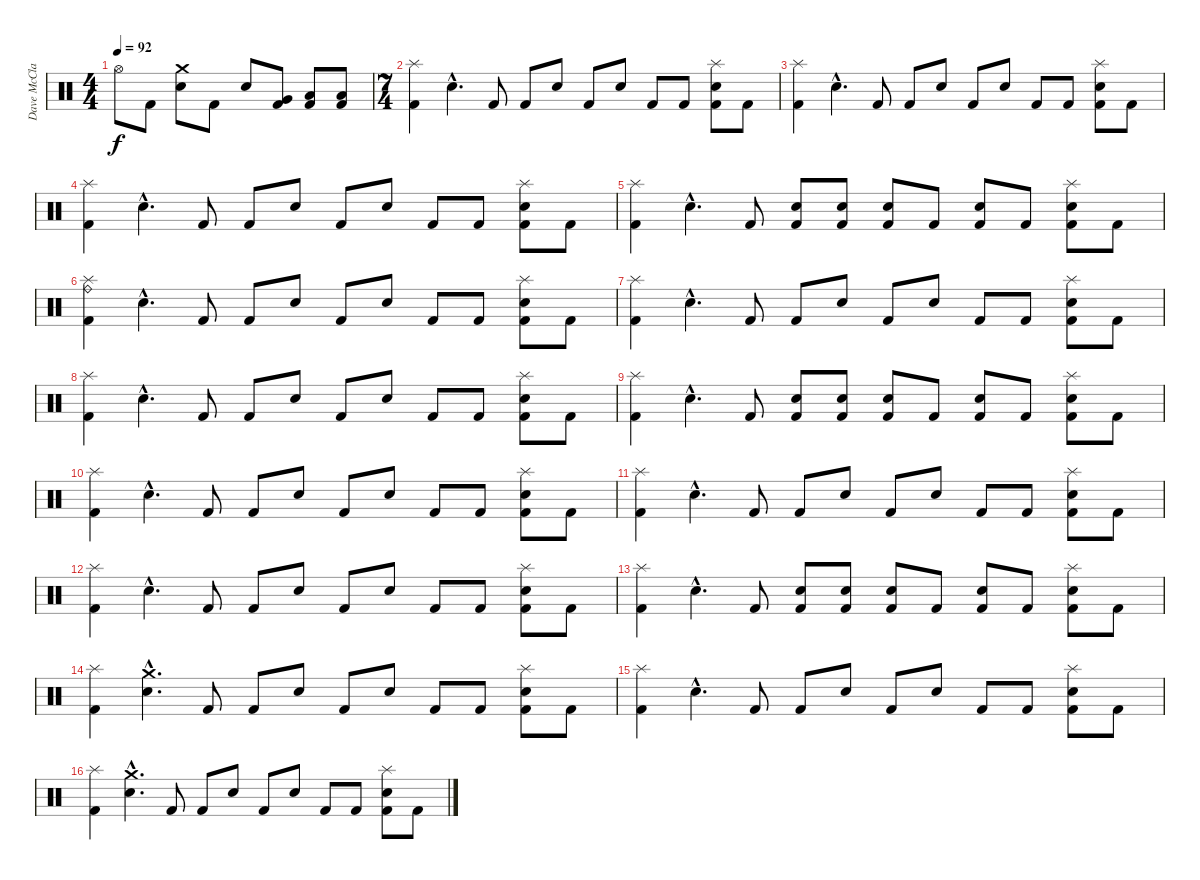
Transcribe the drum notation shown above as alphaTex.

\track ("Dave McClain" "Dave McCla") {instrument percussion}
\staff {score}
\articulation defaults
\ts (4 4)
\tempo 92
\clef neutral
\ks c "Hi-Hat (open)".8{dy f} "Kick (hit) 2".8
("Crash medium (hit)" "Electric Snare (hit)").8 "Kick (hit) 2".8 "Electric Snare (hit)".8 ("Very Low Tom (hit)" "Kick (hit) 2").8 ("Low Floor Tom (hit)" "Kick (hit) 2").8 ("Low Floor Tom (hit)" "Kick (hit) 2").8 |
\ts (7 4)
("Splash (hit)" "Kick (hit) 2").4{volume 11} "Snare (hit) 2"{hac}.4{d} "Kick (hit) 2".8 "Kick (hit) 2".8 "Electric Snare (hit)".8 "Kick (hit) 2".8 "Electric Snare (hit)".8 "Kick (hit) 2".8 "Kick (hit) 2".8 ("Splash (hit)" "Electric Snare (hit)" "Kick (hit) 2").8 "Kick (hit) 2".8 |
("Splash (hit)" "Kick (hit) 2").4 "Snare (hit) 2"{hac}.4{d} "Kick (hit) 2".8 "Kick (hit) 2".8 "Electric Snare (hit)".8 "Kick (hit) 2".8 "Electric Snare (hit)".8 "Kick (hit) 2".8 "Kick (hit) 2".8 ("Splash (hit)" "Electric Snare (hit)" "Kick (hit) 2").8 "Kick (hit) 2".8 |
("Splash (hit)" "Kick (hit) 2").4 "Snare (hit) 2"{hac}.4{d} "Kick (hit) 2".8 "Kick (hit) 2".8 "Electric Snare (hit)".8 "Kick (hit) 2".8 "Electric Snare (hit)".8 "Kick (hit) 2".8 "Kick (hit) 2".8 ("Splash (hit)" "Electric Snare (hit)" "Kick (hit) 2").8 "Kick (hit) 2".8 |
("Splash (hit)" "Kick (hit) 2").4 "Snare (hit) 2"{hac}.4{d} "Kick (hit) 2".8 ("Electric Snare (hit)" "Kick (hit) 2").8 ("Electric Snare (hit)" "Kick (hit) 2").8 ("Electric Snare (hit)" "Kick (hit) 2").8 "Kick (hit) 2".8 ("Electric Snare (hit)" "Kick (hit) 2").8 "Kick (hit) 2".8 ("Splash (hit)" "Electric Snare (hit)" "Kick (hit) 2").8 "Kick (hit) 2".8 |
("Ride (bell)" "Splash (hit)" "Kick (hit) 2").4 "Snare (hit) 2"{hac}.4{d} "Kick (hit) 2".8 "Kick (hit) 2".8 "Electric Snare (hit)".8 "Kick (hit) 2".8 "Electric Snare (hit)".8 "Kick (hit) 2".8 "Kick (hit) 2".8 ("Splash (hit)" "Electric Snare (hit)" "Kick (hit) 2").8 "Kick (hit) 2".8 |
("Splash (hit)" "Kick (hit) 2").4 "Snare (hit) 2"{hac}.4{d} "Kick (hit) 2".8 "Kick (hit) 2".8 "Electric Snare (hit)".8 "Kick (hit) 2".8 "Electric Snare (hit)".8 "Kick (hit) 2".8 "Kick (hit) 2".8 ("Splash (hit)" "Electric Snare (hit)" "Kick (hit) 2").8 "Kick (hit) 2".8 |
("Splash (hit)" "Kick (hit) 2").4 "Snare (hit) 2"{hac}.4{d} "Kick (hit) 2".8 "Kick (hit) 2".8 "Electric Snare (hit)".8 "Kick (hit) 2".8 "Electric Snare (hit)".8 "Kick (hit) 2".8 "Kick (hit) 2".8 ("Splash (hit)" "Electric Snare (hit)" "Kick (hit) 2").8 "Kick (hit) 2".8 |
("Splash (hit)" "Kick (hit) 2").4 "Snare (hit) 2"{hac}.4{d} "Kick (hit) 2".8 ("Electric Snare (hit)" "Kick (hit) 2").8 ("Electric Snare (hit)" "Kick (hit) 2").8 ("Electric Snare (hit)" "Kick (hit) 2").8 "Kick (hit) 2".8 ("Electric Snare (hit)" "Kick (hit) 2").8 "Kick (hit) 2".8 ("Splash (hit)" "Electric Snare (hit)" "Kick (hit) 2").8 "Kick (hit) 2".8 |
("Splash (hit)" "Kick (hit) 2").4 "Snare (hit) 2"{hac}.4{d} "Kick (hit) 2".8 "Kick (hit) 2".8 "Electric Snare (hit)".8 "Kick (hit) 2".8 "Electric Snare (hit)".8 "Kick (hit) 2".8 "Kick (hit) 2".8 ("Splash (hit)" "Electric Snare (hit)" "Kick (hit) 2").8 "Kick (hit) 2".8 |
("Splash (hit)" "Kick (hit) 2").4 "Snare (hit) 2"{hac}.4{d} "Kick (hit) 2".8 "Kick (hit) 2".8 "Electric Snare (hit)".8 "Kick (hit) 2".8 "Electric Snare (hit)".8 "Kick (hit) 2".8 "Kick (hit) 2".8 ("Splash (hit)" "Electric Snare (hit)" "Kick (hit) 2").8 "Kick (hit) 2".8 |
("Splash (hit)" "Kick (hit) 2").4 "Snare (hit) 2"{hac}.4{d} "Kick (hit) 2".8 "Kick (hit) 2".8 "Electric Snare (hit)".8 "Kick (hit) 2".8 "Electric Snare (hit)".8 "Kick (hit) 2".8 "Kick (hit) 2".8 ("Splash (hit)" "Electric Snare (hit)" "Kick (hit) 2").8 "Kick (hit) 2".8 |
("Splash (hit)" "Kick (hit) 2").4 "Snare (hit) 2"{hac}.4{d} "Kick (hit) 2".8 ("Electric Snare (hit)" "Kick (hit) 2").8 ("Electric Snare (hit)" "Kick (hit) 2").8 ("Electric Snare (hit)" "Kick (hit) 2").8 "Kick (hit) 2".8 ("Electric Snare (hit)" "Kick (hit) 2").8 "Kick (hit) 2".8 ("Splash (hit)" "Electric Snare (hit)" "Kick (hit) 2").8 "Kick (hit) 2".8 |
("Splash (hit)" "Kick (hit) 2").4 ("Crash medium (hit)"{hac} "Snare (hit) 2"{hac}).4{d} "Kick (hit) 2".8 "Kick (hit) 2".8 "Electric Snare (hit)".8 "Kick (hit) 2".8 "Electric Snare (hit)".8 "Kick (hit) 2".8 "Kick (hit) 2".8 ("Splash (hit)" "Electric Snare (hit)" "Kick (hit) 2").8 "Kick (hit) 2".8 |
("Splash (hit)" "Kick (hit) 2").4 "Snare (hit) 2"{hac}.4{d} "Kick (hit) 2".8 "Kick (hit) 2".8 "Electric Snare (hit)".8 "Kick (hit) 2".8 "Electric Snare (hit)".8 "Kick (hit) 2".8 "Kick (hit) 2".8 ("Splash (hit)" "Electric Snare (hit)" "Kick (hit) 2").8 "Kick (hit) 2".8 |
("Splash (hit)" "Kick (hit) 2").4 ("Crash medium (hit)"{hac} "Snare (hit) 2"{hac}).4{d} "Kick (hit) 2".8 "Kick (hit) 2".8 "Electric Snare (hit)".8 "Kick (hit) 2".8 "Electric Snare (hit)".8 "Kick (hit) 2".8 "Kick (hit) 2".8 ("Splash (hit)" "Electric Snare (hit)" "Kick (hit) 2").8 "Kick (hit) 2".8
